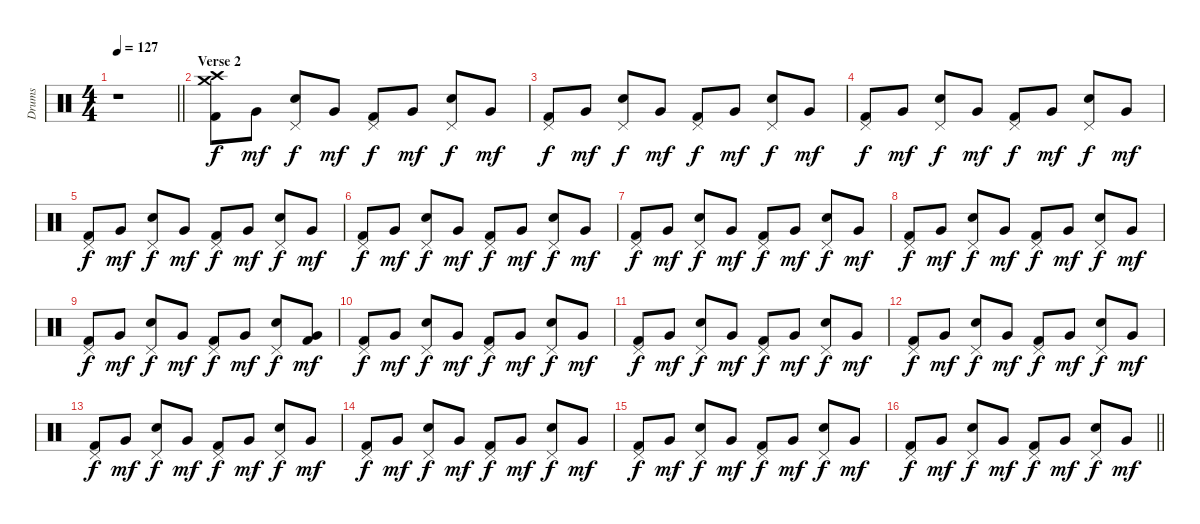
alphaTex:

\track ("Drums" "Drums") {instrument percussion}
\staff {score}
\articulation defaults
\ts (4 4)
\tempo 127
\clef neutral
\barLineRight lightlight
\ks c
r.1{dy f} |
\section ("" "Verse 2")
("Crash high (hit)" "Crash medium (hit)" "Kick (hit) 2").8 "Very Low Tom (hit)".8{dy mf} ("Pedal Hi-Hat (hit)" "Electric Snare (hit)").8{dy f} "Very Low Tom (hit)".8{dy mf} ("Pedal Hi-Hat (hit)" "Kick (hit) 2").8{dy f} "Very Low Tom (hit)".8{dy mf} ("Pedal Hi-Hat (hit)" "Electric Snare (hit)").8{dy f} "Very Low Tom (hit)".8{dy mf} |
("Pedal Hi-Hat (hit)" "Kick (hit) 2").8{dy f} "Very Low Tom (hit)".8{dy mf} ("Pedal Hi-Hat (hit)" "Electric Snare (hit)").8{dy f} "Very Low Tom (hit)".8{dy mf} ("Pedal Hi-Hat (hit)" "Kick (hit) 2").8{dy f} "Very Low Tom (hit)".8{dy mf} ("Pedal Hi-Hat (hit)" "Electric Snare (hit)").8{dy f} "Very Low Tom (hit)".8{dy mf} |
("Pedal Hi-Hat (hit)" "Kick (hit) 2").8{dy f} "Very Low Tom (hit)".8{dy mf} ("Pedal Hi-Hat (hit)" "Electric Snare (hit)").8{dy f} "Very Low Tom (hit)".8{dy mf} ("Pedal Hi-Hat (hit)" "Kick (hit) 2").8{dy f} "Very Low Tom (hit)".8{dy mf} ("Pedal Hi-Hat (hit)" "Electric Snare (hit)").8{dy f} "Very Low Tom (hit)".8{dy mf} |
("Pedal Hi-Hat (hit)" "Kick (hit) 2").8{dy f} "Very Low Tom (hit)".8{dy mf} ("Pedal Hi-Hat (hit)" "Electric Snare (hit)").8{dy f} "Very Low Tom (hit)".8{dy mf} ("Pedal Hi-Hat (hit)" "Kick (hit) 2").8{dy f} "Very Low Tom (hit)".8{dy mf} ("Pedal Hi-Hat (hit)" "Electric Snare (hit)").8{dy f} "Very Low Tom (hit)".8{dy mf} |
("Pedal Hi-Hat (hit)" "Kick (hit) 2").8{dy f} "Very Low Tom (hit)".8{dy mf} ("Pedal Hi-Hat (hit)" "Electric Snare (hit)").8{dy f} "Very Low Tom (hit)".8{dy mf} ("Pedal Hi-Hat (hit)" "Kick (hit) 2").8{dy f} "Very Low Tom (hit)".8{dy mf} ("Pedal Hi-Hat (hit)" "Electric Snare (hit)").8{dy f} "Very Low Tom (hit)".8{dy mf} |
("Pedal Hi-Hat (hit)" "Kick (hit) 2").8{dy f} "Very Low Tom (hit)".8{dy mf} ("Pedal Hi-Hat (hit)" "Electric Snare (hit)").8{dy f} "Very Low Tom (hit)".8{dy mf} ("Pedal Hi-Hat (hit)" "Kick (hit) 2").8{dy f} "Very Low Tom (hit)".8{dy mf} ("Pedal Hi-Hat (hit)" "Electric Snare (hit)").8{dy f} "Very Low Tom (hit)".8{dy mf} |
("Pedal Hi-Hat (hit)" "Kick (hit) 2").8{dy f} "Very Low Tom (hit)".8{dy mf} ("Pedal Hi-Hat (hit)" "Electric Snare (hit)").8{dy f} "Very Low Tom (hit)".8{dy mf} ("Pedal Hi-Hat (hit)" "Kick (hit) 2").8{dy f} "Very Low Tom (hit)".8{dy mf} ("Pedal Hi-Hat (hit)" "Electric Snare (hit)").8{dy f} "Very Low Tom (hit)".8{dy mf} |
("Pedal Hi-Hat (hit)" "Kick (hit) 2").8{dy f} "Very Low Tom (hit)".8{dy mf} ("Pedal Hi-Hat (hit)" "Electric Snare (hit)").8{dy f} "Very Low Tom (hit)".8{dy mf} ("Pedal Hi-Hat (hit)" "Kick (hit) 2").8{dy f} "Very Low Tom (hit)".8{dy mf} ("Pedal Hi-Hat (hit)" "Electric Snare (hit)").8{dy f} ("Very Low Tom (hit)" "Kick (hit) 2").8{dy mf} |
("Pedal Hi-Hat (hit)" "Kick (hit) 2").8{dy f} "Very Low Tom (hit)".8{dy mf} ("Pedal Hi-Hat (hit)" "Electric Snare (hit)").8{dy f} "Very Low Tom (hit)".8{dy mf} ("Pedal Hi-Hat (hit)" "Kick (hit) 2").8{dy f} "Very Low Tom (hit)".8{dy mf} ("Pedal Hi-Hat (hit)" "Electric Snare (hit)").8{dy f} "Very Low Tom (hit)".8{dy mf} |
("Pedal Hi-Hat (hit)" "Kick (hit) 2").8{dy f} "Very Low Tom (hit)".8{dy mf} ("Pedal Hi-Hat (hit)" "Electric Snare (hit)").8{dy f} "Very Low Tom (hit)".8{dy mf} ("Pedal Hi-Hat (hit)" "Kick (hit) 2").8{dy f} "Very Low Tom (hit)".8{dy mf} ("Pedal Hi-Hat (hit)" "Electric Snare (hit)").8{dy f} "Very Low Tom (hit)".8{dy mf} |
("Pedal Hi-Hat (hit)" "Kick (hit) 2").8{dy f} "Very Low Tom (hit)".8{dy mf} ("Pedal Hi-Hat (hit)" "Electric Snare (hit)").8{dy f} "Very Low Tom (hit)".8{dy mf} ("Pedal Hi-Hat (hit)" "Kick (hit) 2").8{dy f} "Very Low Tom (hit)".8{dy mf} ("Pedal Hi-Hat (hit)" "Electric Snare (hit)").8{dy f} "Very Low Tom (hit)".8{dy mf} |
("Pedal Hi-Hat (hit)" "Kick (hit) 2").8{dy f} "Very Low Tom (hit)".8{dy mf} ("Pedal Hi-Hat (hit)" "Electric Snare (hit)").8{dy f} "Very Low Tom (hit)".8{dy mf} ("Pedal Hi-Hat (hit)" "Kick (hit) 2").8{dy f} "Very Low Tom (hit)".8{dy mf} ("Pedal Hi-Hat (hit)" "Electric Snare (hit)").8{dy f} "Very Low Tom (hit)".8{dy mf} |
("Pedal Hi-Hat (hit)" "Kick (hit) 2").8{dy f} "Very Low Tom (hit)".8{dy mf} ("Pedal Hi-Hat (hit)" "Electric Snare (hit)").8{dy f} "Very Low Tom (hit)".8{dy mf} ("Pedal Hi-Hat (hit)" "Kick (hit) 2").8{dy f} "Very Low Tom (hit)".8{dy mf} ("Pedal Hi-Hat (hit)" "Electric Snare (hit)").8{dy f} "Very Low Tom (hit)".8{dy mf} |
("Pedal Hi-Hat (hit)" "Kick (hit) 2").8{dy f} "Very Low Tom (hit)".8{dy mf} ("Pedal Hi-Hat (hit)" "Electric Snare (hit)").8{dy f} "Very Low Tom (hit)".8{dy mf} ("Pedal Hi-Hat (hit)" "Kick (hit) 2").8{dy f} "Very Low Tom (hit)".8{dy mf} ("Pedal Hi-Hat (hit)" "Electric Snare (hit)").8{dy f} "Very Low Tom (hit)".8{dy mf} |
\barLineRight lightlight
("Pedal Hi-Hat (hit)" "Kick (hit) 2").8{dy f} "Very Low Tom (hit)".8{dy mf} ("Pedal Hi-Hat (hit)" "Electric Snare (hit)").8{dy f} "Very Low Tom (hit)".8{dy mf} ("Pedal Hi-Hat (hit)" "Kick (hit) 2").8{dy f} "Very Low Tom (hit)".8{dy mf} ("Pedal Hi-Hat (hit)" "Electric Snare (hit)").8{dy f} "Very Low Tom (hit)".8{dy mf}
